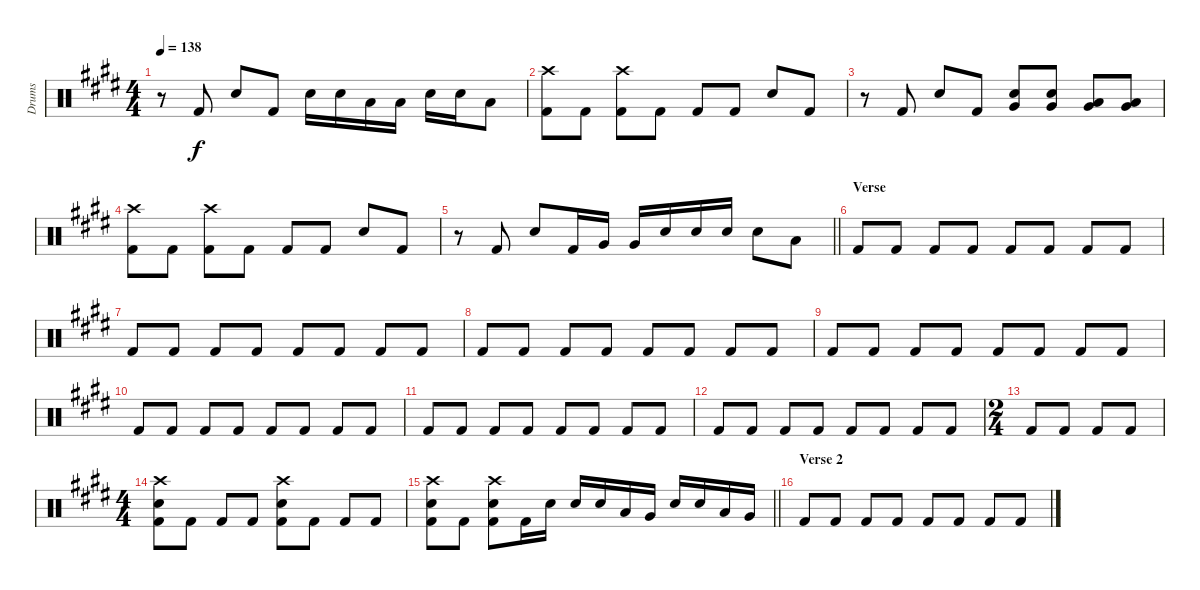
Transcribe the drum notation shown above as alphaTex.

\track ("Drums" "Drums") {instrument percussion}
\staff {score}
\articulation defaults
\ts (4 4)
\tempo 138
\clef neutral
\ks c#minor
r.8{dy f} "Kick (hit) 2".8 "Snare (hit) 2".8 "Kick (hit) 2".8 "Snare (hit) 2".16 "Snare (hit) 2".16 "Low Tom (hit)".16 "Low Tom (hit)".16 "Snare (hit) 2".16 "Snare (hit) 2".16 "Low Tom (hit)".8 |
("Crash high (hit)" "Kick (hit) 2").8 "Kick (hit) 2".8 ("Crash high (hit)" "Kick (hit) 2").8 "Kick (hit) 2".8 "Kick (hit) 2".8 "Kick (hit) 2".8 "Snare (hit) 2".8 "Kick (hit) 2".8 |
r.8 "Kick (hit) 2".8 "Snare (hit) 2".8 "Kick (hit) 2".8 ("Snare (hit) 2" "Very Low Tom (hit)").8 ("Snare (hit) 2" "Very Low Tom (hit)").8 ("Low Tom (hit)" "Very Low Tom (hit)").8 ("Low Tom (hit)" "Very Low Tom (hit)").8 |
("Crash high (hit)" "Kick (hit) 2").8 "Kick (hit) 2".8 ("Crash high (hit)" "Kick (hit) 2").8 "Kick (hit) 2".8 "Kick (hit) 2".8 "Kick (hit) 2".8 "Snare (hit) 2".8 "Kick (hit) 2".8 |
\barLineRight lightlight
r.8 "Kick (hit) 2".8 "Snare (hit) 2".8 "Kick (hit) 2".16 "Very Low Tom (hit)".16 "Very Low Tom (hit)".16 "Snare (hit) 2".16 "Snare (hit) 2".16 "Snare (hit) 2".16 "Snare (hit) 2".8 "Low Tom (hit)".8 |
\section ("" "Verse")
"Kick (hit) 2".8 "Kick (hit) 2".8 "Kick (hit) 2".8 "Kick (hit) 2".8 "Kick (hit) 2".8 "Kick (hit) 2".8 "Kick (hit) 2".8 "Kick (hit) 2".8 |
"Kick (hit) 2".8 "Kick (hit) 2".8 "Kick (hit) 2".8 "Kick (hit) 2".8 "Kick (hit) 2".8 "Kick (hit) 2".8 "Kick (hit) 2".8 "Kick (hit) 2".8 |
"Kick (hit) 2".8 "Kick (hit) 2".8 "Kick (hit) 2".8 "Kick (hit) 2".8 "Kick (hit) 2".8 "Kick (hit) 2".8 "Kick (hit) 2".8 "Kick (hit) 2".8 |
"Kick (hit) 2".8 "Kick (hit) 2".8 "Kick (hit) 2".8 "Kick (hit) 2".8 "Kick (hit) 2".8 "Kick (hit) 2".8 "Kick (hit) 2".8 "Kick (hit) 2".8 |
"Kick (hit) 2".8 "Kick (hit) 2".8 "Kick (hit) 2".8 "Kick (hit) 2".8 "Kick (hit) 2".8 "Kick (hit) 2".8 "Kick (hit) 2".8 "Kick (hit) 2".8 |
"Kick (hit) 2".8 "Kick (hit) 2".8 "Kick (hit) 2".8 "Kick (hit) 2".8 "Kick (hit) 2".8 "Kick (hit) 2".8 "Kick (hit) 2".8 "Kick (hit) 2".8 |
"Kick (hit) 2".8 "Kick (hit) 2".8 "Kick (hit) 2".8 "Kick (hit) 2".8 "Kick (hit) 2".8 "Kick (hit) 2".8 "Kick (hit) 2".8 "Kick (hit) 2".8 |
\ts (2 4)
"Kick (hit) 2".8 "Kick (hit) 2".8 "Kick (hit) 2".8 "Kick (hit) 2".8 |
\ts (4 4)
("Crash high (hit)" "Snare (hit) 2" "Kick (hit) 2").8 "Kick (hit) 2".8 "Kick (hit) 2".8 "Kick (hit) 2".8 ("Crash high (hit)" "Snare (hit) 2" "Kick (hit) 2").8 "Kick (hit) 2".8 "Kick (hit) 2".8 "Kick (hit) 2".8 |
\barLineRight lightlight
("Crash high (hit)" "Snare (hit) 2" "Kick (hit) 2").8 "Kick (hit) 2".8 ("Crash high (hit)" "Snare (hit) 2" "Kick (hit) 2").8 "Kick (hit) 2".16 "Snare (hit) 2".16 "Snare (hit) 2".16 "Snare (hit) 2".16 "Low Tom (hit)".16 "Very Low Tom (hit)".16 "Snare (hit) 2".16 "Snare (hit) 2".16 "Low Tom (hit)".16 "Very Low Tom (hit)".16 |
\section ("" "Verse 2")
"Kick (hit) 2".8 "Kick (hit) 2".8 "Kick (hit) 2".8 "Kick (hit) 2".8 "Kick (hit) 2".8 "Kick (hit) 2".8 "Kick (hit) 2".8 "Kick (hit) 2".8
